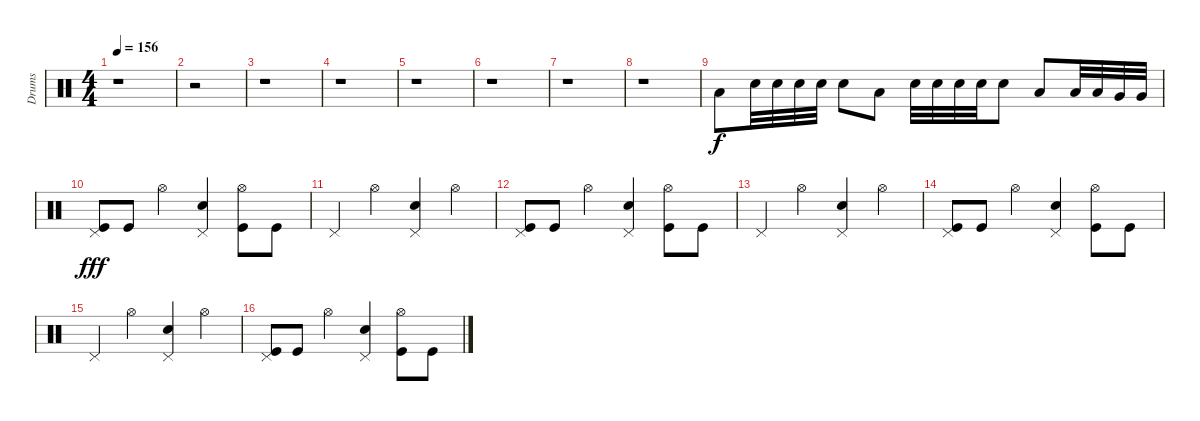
\track ("Drums               " "Drums     ") {instrument percussion}
\staff {score}
\articulation defaults
\ts (4 4)
\tempo 156
\clef neutral
\ks c
r.1{dy f} |
r.2 |
r.1 |
r.1 |
r.1 |
r.1 |
r.1 |
r.1 |
"Low Tom (hit)".8 "Snare (hit) 2".32 "Snare (hit) 2".32 "Snare (hit) 2".32 "Snare (hit) 2".32 "Snare (hit) 2".8 "Low Tom (hit)".8 "Snare (hit) 2".32 "Snare (hit) 2".32 "Snare (hit) 2".32 "Snare (hit) 2".32 "Snare (hit) 2".8 "Low Tom (hit)".8 "Low Tom (hit)".32 "Low Tom (hit)".32 "Very Low Tom (hit)".32 "Very Low Tom (hit)".32 |
("Kick (hit)" "Pedal Hi-Hat (hit)").8{dy fff} "Kick (hit)".8 "Hi-Hat (open)".4 ("Snare (hit) 2" "Pedal Hi-Hat (hit)").4 ("Kick (hit)" "Hi-Hat (open)").8 "Kick (hit)".8 |
"Pedal Hi-Hat (hit)".4 "Hi-Hat (open)".4 ("Pedal Hi-Hat (hit)" "Snare (hit) 2").4 "Hi-Hat (open)".4 |
("Kick (hit)" "Pedal Hi-Hat (hit)").8 "Kick (hit)".8 "Hi-Hat (open)".4 ("Snare (hit) 2" "Pedal Hi-Hat (hit)").4 ("Kick (hit)" "Hi-Hat (open)").8 "Kick (hit)".8 |
"Pedal Hi-Hat (hit)".4 "Hi-Hat (open)".4 ("Pedal Hi-Hat (hit)" "Snare (hit) 2").4 "Hi-Hat (open)".4 |
("Kick (hit)" "Pedal Hi-Hat (hit)").8 "Kick (hit)".8 "Hi-Hat (open)".4 ("Snare (hit) 2" "Pedal Hi-Hat (hit)").4 ("Kick (hit)" "Hi-Hat (open)").8 "Kick (hit)".8 |
"Pedal Hi-Hat (hit)".4 "Hi-Hat (open)".4 ("Pedal Hi-Hat (hit)" "Snare (hit) 2").4 "Hi-Hat (open)".4 |
("Kick (hit)" "Pedal Hi-Hat (hit)").8 "Kick (hit)".8 "Hi-Hat (open)".4 ("Snare (hit) 2" "Pedal Hi-Hat (hit)").4 ("Kick (hit)" "Hi-Hat (open)").8 "Kick (hit)".8
